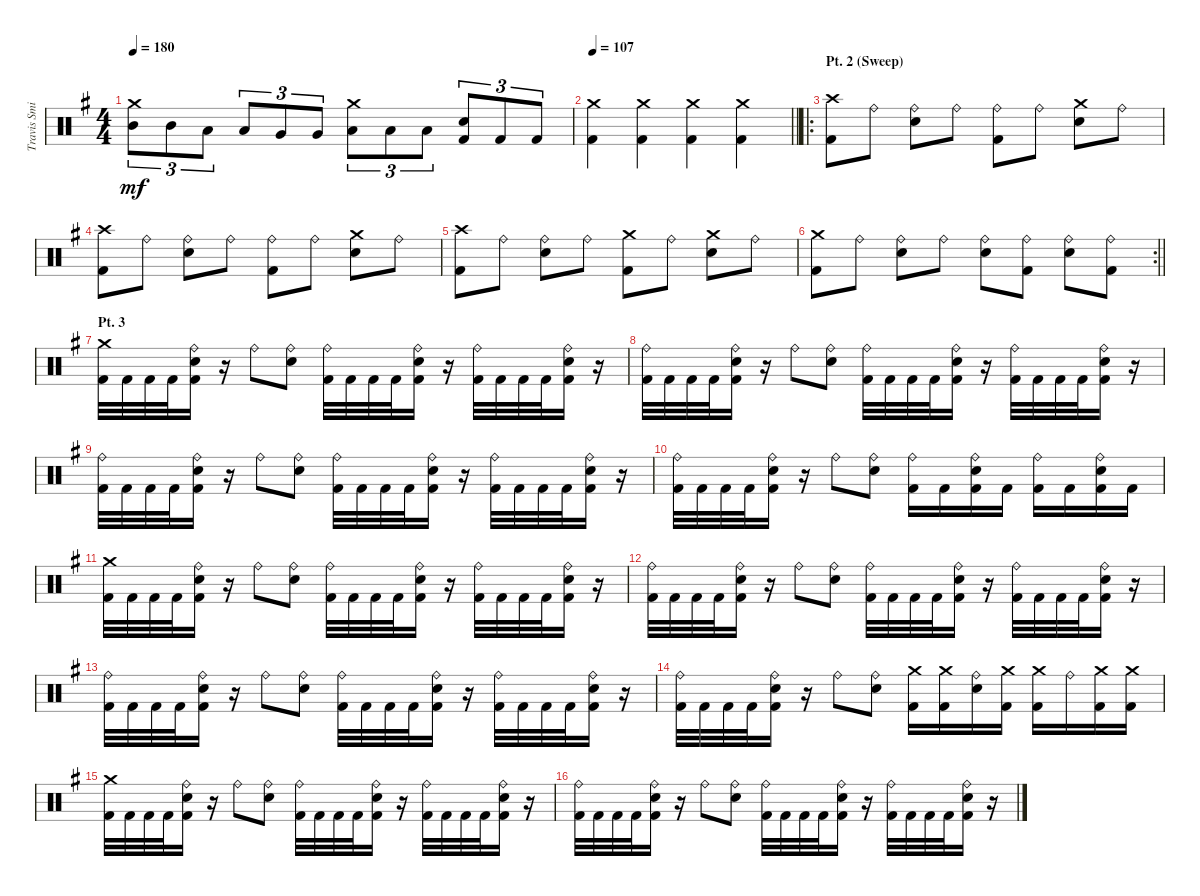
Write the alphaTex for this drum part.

\track ("Travis Smith" "Travis Smi") {instrument percussion}
\staff {score}
\articulation defaults
\ts (4 4)
\tempo 180
\clef neutral
\ks eminor
("Crash medium (hit)" "Mid Tom (hit)").8{tu (3 2) dy mf} "Mid Tom (hit)".8{tu (3 2)} "Low Tom (hit)".8{tu (3 2)} "Low Tom (hit)".8{tu (3 2)} "Very Low Tom (hit)".8{tu (3 2)} "Very Low Tom (hit)".8{tu (3 2)} ("Crash medium (hit)" "Low Floor Tom (hit)").8{tu (3 2)} "Low Floor Tom (hit)".8{tu (3 2)} "Low Floor Tom (hit)".8{tu (3 2)} ("Snare (hit) 2" "Kick (hit) 2").8{tu (3 2)} "Kick (hit) 2".8{tu (3 2)} "Kick (hit) 2".8{tu (3 2)} |
\tempo 107
\barLineRight lightlight
("Crash medium (hit)" "Kick (hit) 2").4 ("Crash medium (hit)" "Kick (hit) 2").4 ("Crash medium (hit)" "Kick (hit) 2").4 ("Crash medium (hit)" "Kick (hit) 2").4 |
\ro
\section ("" "Pt. 2 (Sweep)")
("Crash high (hit)" "Kick (hit) 2").8 "Ride (bell)".8 ("Ride (bell)" "Snare (hit) 2").8 "Ride (bell)".8 ("Ride (bell)" "Kick (hit) 2").8 "Ride (bell)".8 ("Crash medium (hit)" "Snare (hit) 2").8 "Ride (bell)".8 |
("Crash high (hit)" "Kick (hit) 2").8 "Ride (bell)".8 ("Ride (bell)" "Snare (hit) 2").8 "Ride (bell)".8 ("Ride (bell)" "Kick (hit) 2").8 "Ride (bell)".8 ("Crash medium (hit)" "Snare (hit) 2").8 "Ride (bell)".8 |
("Crash high (hit)" "Kick (hit) 2").8 "Ride (bell)".8 ("Ride (bell)" "Snare (hit) 2").8 "Ride (bell)".8 ("Crash medium (hit)" "Kick (hit) 2").8 "Ride (bell)".8 ("Crash medium (hit)" "Snare (hit) 2").8 "Ride (bell)".8 |
\rc 2
\barLineRight lightlight
("Crash medium (hit)" "Kick (hit) 2").8 "Ride (bell)".8 ("Ride (bell)" "Snare (hit) 2").8 "Ride (bell)".8 ("Ride (bell)" "Snare (hit) 2").8 ("Ride (bell)" "Kick (hit) 2").8 ("Ride (bell)" "Snare (hit) 2").8 ("Ride (bell)" "Kick (hit) 2").8 |
\section ("" "Pt. 3")
("Crash medium (hit)" "Kick (hit) 2").32 "Kick (hit) 2".32 "Kick (hit) 2".32 "Kick (hit) 2".32 ("Ride (bell)" "Snare (hit) 2" "Kick (hit) 2").16 r.16 "Ride (bell)".8 ("Ride (bell)" "Snare (hit) 2").8 ("Ride (bell)" "Kick (hit) 2").32 "Kick (hit) 2".32 "Kick (hit) 2".32 "Kick (hit) 2".32 ("Ride (bell)" "Snare (hit) 2" "Kick (hit) 2").16 r.16 ("Ride (bell)" "Kick (hit) 2").32 "Kick (hit) 2".32 "Kick (hit) 2".32 "Kick (hit) 2".32 ("Ride (bell)" "Snare (hit) 2" "Kick (hit) 2").16 r.16 |
("Ride (bell)" "Kick (hit) 2").32 "Kick (hit) 2".32 "Kick (hit) 2".32 "Kick (hit) 2".32 ("Ride (bell)" "Snare (hit) 2" "Kick (hit) 2").16 r.16 "Ride (bell)".8 ("Ride (bell)" "Snare (hit) 2").8 ("Ride (bell)" "Kick (hit) 2").32 "Kick (hit) 2".32 "Kick (hit) 2".32 "Kick (hit) 2".32 ("Ride (bell)" "Snare (hit) 2" "Kick (hit) 2").16 r.16 ("Ride (bell)" "Kick (hit) 2").32 "Kick (hit) 2".32 "Kick (hit) 2".32 "Kick (hit) 2".32 ("Ride (bell)" "Snare (hit) 2" "Kick (hit) 2").16 r.16 |
("Ride (bell)" "Kick (hit) 2").32 "Kick (hit) 2".32 "Kick (hit) 2".32 "Kick (hit) 2".32 ("Ride (bell)" "Snare (hit) 2" "Kick (hit) 2").16 r.16 "Ride (bell)".8 ("Ride (bell)" "Snare (hit) 2").8 ("Ride (bell)" "Kick (hit) 2").32 "Kick (hit) 2".32 "Kick (hit) 2".32 "Kick (hit) 2".32 ("Ride (bell)" "Snare (hit) 2" "Kick (hit) 2").16 r.16 ("Ride (bell)" "Kick (hit) 2").32 "Kick (hit) 2".32 "Kick (hit) 2".32 "Kick (hit) 2".32 ("Ride (bell)" "Snare (hit) 2" "Kick (hit) 2").16 r.16 |
("Ride (bell)" "Kick (hit) 2").32 "Kick (hit) 2".32 "Kick (hit) 2".32 "Kick (hit) 2".32 ("Ride (bell)" "Snare (hit) 2" "Kick (hit) 2").16 r.16 "Ride (bell)".8 ("Ride (bell)" "Snare (hit) 2").8 ("Ride (bell)" "Kick (hit) 2").16 "Kick (hit) 2".16 ("Ride (bell)" "Snare (hit) 2" "Kick (hit) 2").16 "Kick (hit) 2".16 ("Ride (bell)" "Kick (hit) 2").16 "Kick (hit) 2".16 ("Ride (bell)" "Snare (hit) 2" "Kick (hit) 2").16 "Kick (hit) 2".16 |
("Crash medium (hit)" "Kick (hit) 2").32 "Kick (hit) 2".32 "Kick (hit) 2".32 "Kick (hit) 2".32 ("Ride (bell)" "Snare (hit) 2" "Kick (hit) 2").16 r.16 "Ride (bell)".8 ("Ride (bell)" "Snare (hit) 2").8 ("Ride (bell)" "Kick (hit) 2").32 "Kick (hit) 2".32 "Kick (hit) 2".32 "Kick (hit) 2".32 ("Ride (bell)" "Snare (hit) 2" "Kick (hit) 2").16 r.16 ("Ride (bell)" "Kick (hit) 2").32 "Kick (hit) 2".32 "Kick (hit) 2".32 "Kick (hit) 2".32 ("Ride (bell)" "Snare (hit) 2" "Kick (hit) 2").16 r.16 |
("Ride (bell)" "Kick (hit) 2").32 "Kick (hit) 2".32 "Kick (hit) 2".32 "Kick (hit) 2".32 ("Ride (bell)" "Snare (hit) 2" "Kick (hit) 2").16 r.16 "Ride (bell)".8 ("Ride (bell)" "Snare (hit) 2").8 ("Ride (bell)" "Kick (hit) 2").32 "Kick (hit) 2".32 "Kick (hit) 2".32 "Kick (hit) 2".32 ("Ride (bell)" "Snare (hit) 2" "Kick (hit) 2").16 r.16 ("Ride (bell)" "Kick (hit) 2").32 "Kick (hit) 2".32 "Kick (hit) 2".32 "Kick (hit) 2".32 ("Ride (bell)" "Snare (hit) 2" "Kick (hit) 2").16 r.16 |
("Ride (bell)" "Kick (hit) 2").32 "Kick (hit) 2".32 "Kick (hit) 2".32 "Kick (hit) 2".32 ("Ride (bell)" "Snare (hit) 2" "Kick (hit) 2").16 r.16 "Ride (bell)".8 ("Ride (bell)" "Snare (hit) 2").8 ("Ride (bell)" "Kick (hit) 2").32 "Kick (hit) 2".32 "Kick (hit) 2".32 "Kick (hit) 2".32 ("Ride (bell)" "Snare (hit) 2" "Kick (hit) 2").16 r.16 ("Ride (bell)" "Kick (hit) 2").32 "Kick (hit) 2".32 "Kick (hit) 2".32 "Kick (hit) 2".32 ("Ride (bell)" "Snare (hit) 2" "Kick (hit) 2").16 r.16 |
("Ride (bell)" "Kick (hit) 2").32 "Kick (hit) 2".32 "Kick (hit) 2".32 "Kick (hit) 2".32 ("Ride (bell)" "Snare (hit) 2" "Kick (hit) 2").16 r.16 "Ride (bell)".8 ("Ride (bell)" "Snare (hit) 2").8 ("Crash medium (hit)" "Kick (hit) 2").16 ("Crash medium (hit)" "Kick (hit) 2").16 ("Ride (bell)" "Snare (hit) 2").16 ("Crash medium (hit)" "Kick (hit) 2").16 ("Crash medium (hit)" "Kick (hit) 2").16 "Ride (bell)".16 ("Crash medium (hit)" "Kick (hit) 2").16 ("Crash medium (hit)" "Kick (hit) 2").16 |
("Crash medium (hit)" "Kick (hit) 2").32 "Kick (hit) 2".32 "Kick (hit) 2".32 "Kick (hit) 2".32 ("Ride (bell)" "Snare (hit) 2" "Kick (hit) 2").16 r.16 "Ride (bell)".8 ("Ride (bell)" "Snare (hit) 2").8 ("Ride (bell)" "Kick (hit) 2").32 "Kick (hit) 2".32 "Kick (hit) 2".32 "Kick (hit) 2".32 ("Ride (bell)" "Snare (hit) 2" "Kick (hit) 2").16 r.16 ("Ride (bell)" "Kick (hit) 2").32 "Kick (hit) 2".32 "Kick (hit) 2".32 "Kick (hit) 2".32 ("Ride (bell)" "Snare (hit) 2" "Kick (hit) 2").16 r.16 |
("Ride (bell)" "Kick (hit) 2").32 "Kick (hit) 2".32 "Kick (hit) 2".32 "Kick (hit) 2".32 ("Ride (bell)" "Snare (hit) 2" "Kick (hit) 2").16 r.16 "Ride (bell)".8 ("Ride (bell)" "Snare (hit) 2").8 ("Ride (bell)" "Kick (hit) 2").32 "Kick (hit) 2".32 "Kick (hit) 2".32 "Kick (hit) 2".32 ("Ride (bell)" "Snare (hit) 2" "Kick (hit) 2").16 r.16 ("Ride (bell)" "Kick (hit) 2").32 "Kick (hit) 2".32 "Kick (hit) 2".32 "Kick (hit) 2".32 ("Ride (bell)" "Snare (hit) 2" "Kick (hit) 2").16 r.16
